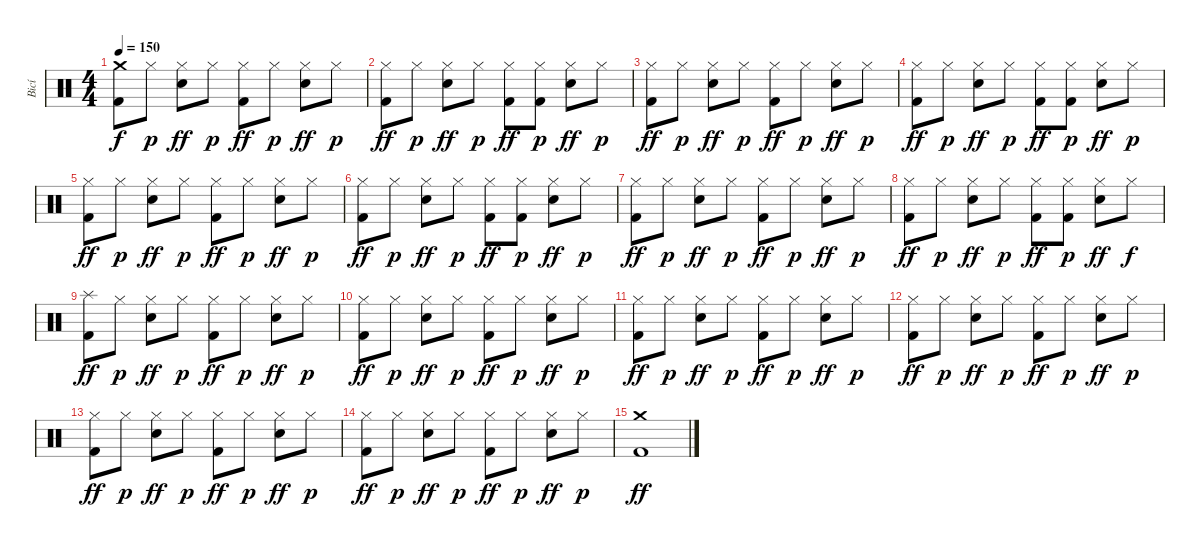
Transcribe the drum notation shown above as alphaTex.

\track ("Bicí" "Bicí") {solo instrument percussion}
\staff {score}
\articulation defaults
\ts (4 4)
\tempo 150
\clef neutral
\ks c
("Crash medium (hit)" "Kick (hit) 2").8{dy f} "Hi-Hat (closed)".8{dy p} ("Hi-Hat (closed)" "Electric Snare (hit)").8{dy ff} "Hi-Hat (closed)".8{dy p} ("Hi-Hat (closed)" "Kick (hit) 2").8{dy ff} "Hi-Hat (closed)".8{dy p} ("Hi-Hat (closed)" "Electric Snare (hit)").8{dy ff} "Hi-Hat (closed)".8{dy p} |
("Hi-Hat (closed)" "Kick (hit) 2").8{dy ff} "Hi-Hat (closed)".8{dy p} ("Hi-Hat (closed)" "Electric Snare (hit)").8{dy ff} "Hi-Hat (closed)".8{dy p} ("Hi-Hat (closed)" "Kick (hit) 2").8{dy ff} ("Hi-Hat (closed)" "Kick (hit) 2").8{dy p} ("Hi-Hat (closed)" "Electric Snare (hit)").8{dy ff} "Hi-Hat (closed)".8{dy p} |
("Hi-Hat (closed)" "Kick (hit) 2").8{dy ff} "Hi-Hat (closed)".8{dy p} ("Hi-Hat (closed)" "Electric Snare (hit)").8{dy ff} "Hi-Hat (closed)".8{dy p} ("Hi-Hat (closed)" "Kick (hit) 2").8{dy ff} "Hi-Hat (closed)".8{dy p} ("Hi-Hat (closed)" "Electric Snare (hit)").8{dy ff} "Hi-Hat (closed)".8{dy p} |
("Hi-Hat (closed)" "Kick (hit) 2").8{dy ff} "Hi-Hat (closed)".8{dy p} ("Hi-Hat (closed)" "Electric Snare (hit)").8{dy ff} "Hi-Hat (closed)".8{dy p} ("Hi-Hat (closed)" "Kick (hit) 2").8{dy ff} ("Hi-Hat (closed)" "Kick (hit) 2").8{dy p} ("Hi-Hat (closed)" "Electric Snare (hit)").8{dy ff} "Hi-Hat (closed)".8{dy p} |
("Hi-Hat (closed)" "Kick (hit) 2").8{dy ff} "Hi-Hat (closed)".8{dy p} ("Hi-Hat (closed)" "Electric Snare (hit)").8{dy ff} "Hi-Hat (closed)".8{dy p} ("Hi-Hat (closed)" "Kick (hit) 2").8{dy ff} "Hi-Hat (closed)".8{dy p} ("Hi-Hat (closed)" "Electric Snare (hit)").8{dy ff} "Hi-Hat (closed)".8{dy p} |
("Hi-Hat (closed)" "Kick (hit) 2").8{dy ff} "Hi-Hat (closed)".8{dy p} ("Hi-Hat (closed)" "Electric Snare (hit)").8{dy ff} "Hi-Hat (closed)".8{dy p} ("Hi-Hat (closed)" "Kick (hit) 2").8{dy ff} ("Hi-Hat (closed)" "Kick (hit) 2").8{dy p} ("Hi-Hat (closed)" "Electric Snare (hit)").8{dy ff} "Hi-Hat (closed)".8{dy p} |
("Hi-Hat (closed)" "Kick (hit) 2").8{dy ff} "Hi-Hat (closed)".8{dy p} ("Hi-Hat (closed)" "Electric Snare (hit)").8{dy ff} "Hi-Hat (closed)".8{dy p} ("Hi-Hat (closed)" "Kick (hit) 2").8{dy ff} "Hi-Hat (closed)".8{dy p} ("Hi-Hat (closed)" "Electric Snare (hit)").8{dy ff} "Hi-Hat (closed)".8{dy p} |
("Hi-Hat (closed)" "Kick (hit) 2").8{dy ff} "Hi-Hat (closed)".8{dy p} ("Hi-Hat (closed)" "Electric Snare (hit)").8{dy ff} "Hi-Hat (closed)".8{dy p} ("Hi-Hat (closed)" "Kick (hit) 2").8{dy ff} ("Hi-Hat (closed)" "Kick (hit) 2").8{dy p} ("Hi-Hat (closed)" "Electric Snare (hit)").8{dy ff} "Hi-Hat (closed)".8{dy f} |
("Splash (hit)" "Kick (hit) 2").8{dy ff} "Hi-Hat (closed)".8{dy p} ("Hi-Hat (closed)" "Electric Snare (hit)").8{dy ff} "Hi-Hat (closed)".8{dy p} ("Hi-Hat (closed)" "Kick (hit) 2").8{dy ff} "Hi-Hat (closed)".8{dy p} ("Hi-Hat (closed)" "Electric Snare (hit)").8{dy ff} "Hi-Hat (closed)".8{dy p} |
("Hi-Hat (closed)" "Kick (hit) 2").8{dy ff} "Hi-Hat (closed)".8{dy p} ("Hi-Hat (closed)" "Electric Snare (hit)").8{dy ff} "Hi-Hat (closed)".8{dy p} ("Hi-Hat (closed)" "Kick (hit) 2").8{dy ff} "Hi-Hat (closed)".8{dy p} ("Hi-Hat (closed)" "Electric Snare (hit)").8{dy ff} "Hi-Hat (closed)".8{dy p} |
("Hi-Hat (closed)" "Kick (hit) 2").8{dy ff} "Hi-Hat (closed)".8{dy p} ("Hi-Hat (closed)" "Electric Snare (hit)").8{dy ff} "Hi-Hat (closed)".8{dy p} ("Hi-Hat (closed)" "Kick (hit) 2").8{dy ff} "Hi-Hat (closed)".8{dy p} ("Hi-Hat (closed)" "Electric Snare (hit)").8{dy ff} "Hi-Hat (closed)".8{dy p} |
("Hi-Hat (closed)" "Kick (hit) 2").8{dy ff} "Hi-Hat (closed)".8{dy p} ("Hi-Hat (closed)" "Electric Snare (hit)").8{dy ff} "Hi-Hat (closed)".8{dy p} ("Hi-Hat (closed)" "Kick (hit) 2").8{dy ff} "Hi-Hat (closed)".8{dy p} ("Hi-Hat (closed)" "Electric Snare (hit)").8{dy ff} "Hi-Hat (closed)".8{dy p} |
("Hi-Hat (closed)" "Kick (hit) 2").8{dy ff} "Hi-Hat (closed)".8{dy p} ("Hi-Hat (closed)" "Electric Snare (hit)").8{dy ff} "Hi-Hat (closed)".8{dy p} ("Hi-Hat (closed)" "Kick (hit) 2").8{dy ff} "Hi-Hat (closed)".8{dy p} ("Hi-Hat (closed)" "Electric Snare (hit)").8{dy ff} "Hi-Hat (closed)".8{dy p} |
("Hi-Hat (closed)" "Kick (hit) 2").8{dy ff} "Hi-Hat (closed)".8{dy p} ("Hi-Hat (closed)" "Electric Snare (hit)").8{dy ff} "Hi-Hat (closed)".8{dy p} ("Hi-Hat (closed)" "Kick (hit) 2").8{dy ff} "Hi-Hat (closed)".8{dy p} ("Hi-Hat (closed)" "Electric Snare (hit)").8{dy ff} "Hi-Hat (closed)".8{dy p} |
("Crash medium (hit)" "Kick (hit) 2").1{dy ff}
